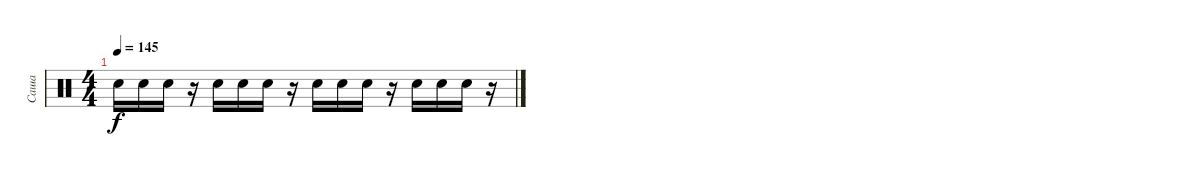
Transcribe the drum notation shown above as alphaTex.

\track ("Саша" "Саша") {instrument percussion}
\staff {score}
\articulation defaults
\ts (4 4)
\tempo 145
\clef neutral
\ks c "Electric Snare (hit)".16{dy f} "Electric Snare (hit)".16 "Electric Snare (hit)".16
r.16 "Electric Snare (hit)".16 "Electric Snare (hit)".16 "Electric Snare (hit)".16 r.16 "Electric Snare (hit)".16 "Electric Snare (hit)".16 "Electric Snare (hit)".16 r.16 "Electric Snare (hit)".16 "Electric Snare (hit)".16 "Electric Snare (hit)".16 r.16
